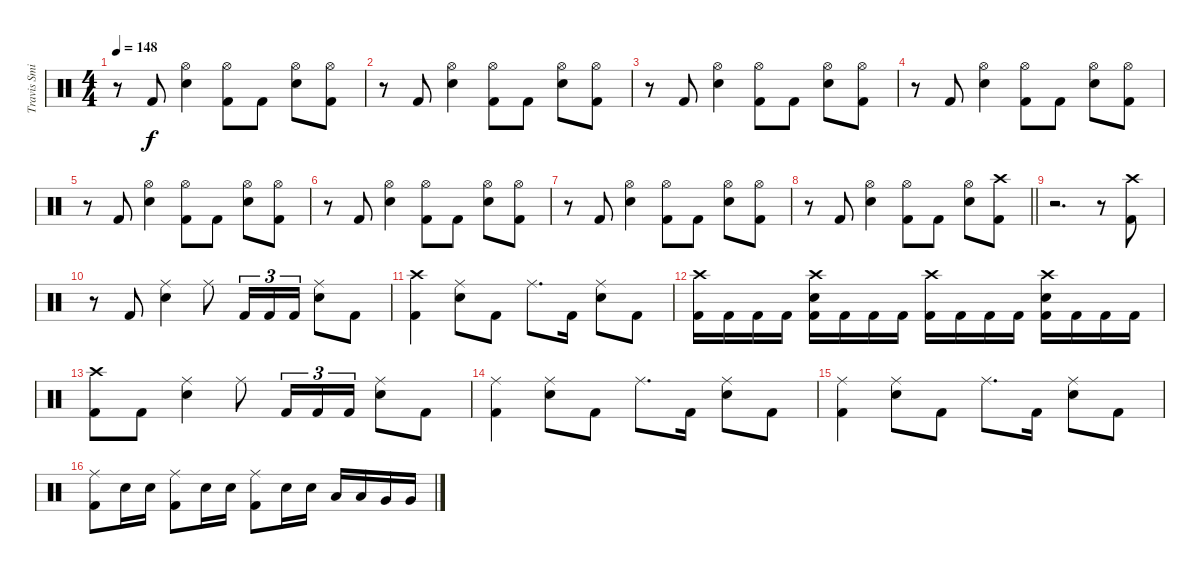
\track ("Travis Smith" "Travis Smi") {instrument percussion}
\staff {score}
\articulation defaults
\ts (4 4)
\tempo 148
\clef neutral
\ks c
r.8{dy f} "Kick (hit) 2".8 ("Snare (hit) 2" "Hi-Hat (open)").4 ("Kick (hit) 2" "Hi-Hat (open)").8 "Kick (hit) 2".8 ("Snare (hit) 2" "Hi-Hat (open)").8 ("Kick (hit) 2" "Hi-Hat (open)").8 |
r.8 "Kick (hit) 2".8 ("Snare (hit) 2" "Hi-Hat (open)").4 ("Kick (hit) 2" "Hi-Hat (open)").8 "Kick (hit) 2".8 ("Snare (hit) 2" "Hi-Hat (open)").8 ("Kick (hit) 2" "Hi-Hat (open)").8 |
r.8 "Kick (hit) 2".8 ("Snare (hit) 2" "Hi-Hat (open)").4 ("Kick (hit) 2" "Hi-Hat (open)").8 "Kick (hit) 2".8 ("Snare (hit) 2" "Hi-Hat (open)").8 ("Kick (hit) 2" "Hi-Hat (open)").8 |
r.8 "Kick (hit) 2".8 ("Snare (hit) 2" "Hi-Hat (open)").4 ("Kick (hit) 2" "Hi-Hat (open)").8 "Kick (hit) 2".8 ("Snare (hit) 2" "Hi-Hat (open)").8 ("Kick (hit) 2" "Hi-Hat (open)").8 |
r.8 "Kick (hit) 2".8 ("Snare (hit) 2" "Hi-Hat (open)").4 ("Kick (hit) 2" "Hi-Hat (open)").8 "Kick (hit) 2".8 ("Snare (hit) 2" "Hi-Hat (open)").8 ("Kick (hit) 2" "Hi-Hat (open)").8 |
r.8 "Kick (hit) 2".8 ("Snare (hit) 2" "Hi-Hat (open)").4 ("Kick (hit) 2" "Hi-Hat (open)").8 "Kick (hit) 2".8 ("Snare (hit) 2" "Hi-Hat (open)").8 ("Kick (hit) 2" "Hi-Hat (open)").8 |
r.8 "Kick (hit) 2".8 ("Snare (hit) 2" "Hi-Hat (open)").4 ("Kick (hit) 2" "Hi-Hat (open)").8 "Kick (hit) 2".8 ("Snare (hit) 2" "Hi-Hat (open)").8 ("Kick (hit) 2" "Hi-Hat (open)").8 |
\barLineRight lightlight
r.8 "Kick (hit) 2".8 ("Snare (hit) 2" "Hi-Hat (open)").4 ("Kick (hit) 2" "Hi-Hat (open)").8 "Kick (hit) 2".8 ("Snare (hit) 2" "Hi-Hat (open)").8 ("Kick (hit) 2" "Crash high (hit)").8 |
r.2{d} r.8 ("Kick (hit) 2" "Crash high (hit)").8 |
r.8 "Kick (hit) 2".8 ("Snare (hit) 2" "Ride (middle)").4 "Ride (middle)".8 "Kick (hit) 2".16{tu (3 2)} "Kick (hit) 2".16{tu (3 2)} "Kick (hit) 2".16{tu (3 2)} ("Snare (hit) 2" "Ride (middle)").8 "Kick (hit) 2".8 |
("Kick (hit) 2" "Crash high (hit)").4 ("Snare (hit) 2" "Ride (middle)").8 "Kick (hit) 2".8 "Ride (middle)".8{d} "Kick (hit) 2".16 ("Snare (hit) 2" "Ride (middle)").8 "Kick (hit) 2".8 |
("Kick (hit) 2" "Crash high (hit)").16 "Kick (hit) 2".16 "Kick (hit) 2".16 "Kick (hit) 2".16 ("Kick (hit) 2" "Crash high (hit)" "Snare (hit) 2").16 "Kick (hit) 2".16 "Kick (hit) 2".16 "Kick (hit) 2".16 ("Kick (hit) 2" "Crash high (hit)").16 "Kick (hit) 2".16 "Kick (hit) 2".16 "Kick (hit) 2".16 ("Kick (hit) 2" "Crash high (hit)" "Snare (hit) 2").16 "Kick (hit) 2".16 "Kick (hit) 2".16 "Kick (hit) 2".16 |
("Kick (hit) 2" "Crash high (hit)").8 "Kick (hit) 2".8 ("Snare (hit) 2" "Ride (middle)").4 "Ride (middle)".8 "Kick (hit) 2".16{tu (3 2)} "Kick (hit) 2".16{tu (3 2)} "Kick (hit) 2".16{tu (3 2)} ("Snare (hit) 2" "Ride (middle)").8 "Kick (hit) 2".8 |
("Kick (hit) 2" "Ride (middle)").4 ("Snare (hit) 2" "Ride (middle)").8 "Kick (hit) 2".8 "Ride (middle)".8{d} "Kick (hit) 2".16 ("Snare (hit) 2" "Ride (middle)").8 "Kick (hit) 2".8 |
("Kick (hit) 2" "Ride (middle)").4 ("Snare (hit) 2" "Ride (middle)").8 "Kick (hit) 2".8 "Ride (middle)".8{d} "Kick (hit) 2".16 ("Snare (hit) 2" "Ride (middle)").8 "Kick (hit) 2".8 |
("Kick (hit) 2" "Ride (middle)").8 "Snare (hit) 2".16 "Snare (hit) 2".16 ("Kick (hit) 2" "Ride (middle)").8 "Snare (hit) 2".16 "Snare (hit) 2".16 ("Kick (hit) 2" "Ride (middle)").8 "Snare (hit) 2".16 "Snare (hit) 2".16 "Low Tom (hit)".16 "Low Tom (hit)".16 "Very Low Tom (hit)".16 "Very Low Tom (hit)".16
